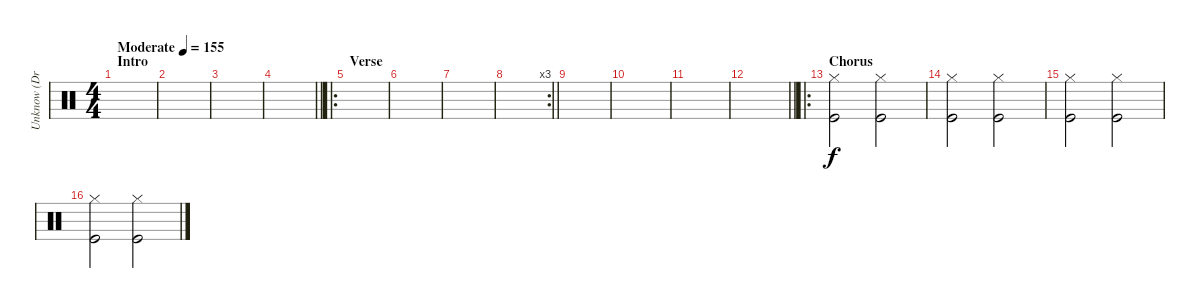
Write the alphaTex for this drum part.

\track ("Unknow (Drumer)" "Unknow (Dr") {instrument percussion}
\staff {score}
\articulation defaults
\ts (4 4)
\section ("" "Intro")
\tempo (155 "Moderate")
\clef neutral
\ks c
|
|
|
\barLineRight lightlight
|
\ro
\section ("" "Verse")
|
|
|
\rc 3
\barLineRight lightlight
|
|
|
|
\barLineRight lightlight
|
\ro
\section ("" "Chorus")
("Hi-Hat (closed)" "Kick (hit)").2 ("Hi-Hat (closed)" "Kick (hit)").2 |
("Hi-Hat (closed)" "Kick (hit)").2 ("Hi-Hat (closed)" "Kick (hit)").2 |
("Hi-Hat (closed)" "Kick (hit)").2 ("Hi-Hat (closed)" "Kick (hit)").2 |
("Hi-Hat (closed)" "Kick (hit)").2 ("Hi-Hat (closed)" "Kick (hit)").2
